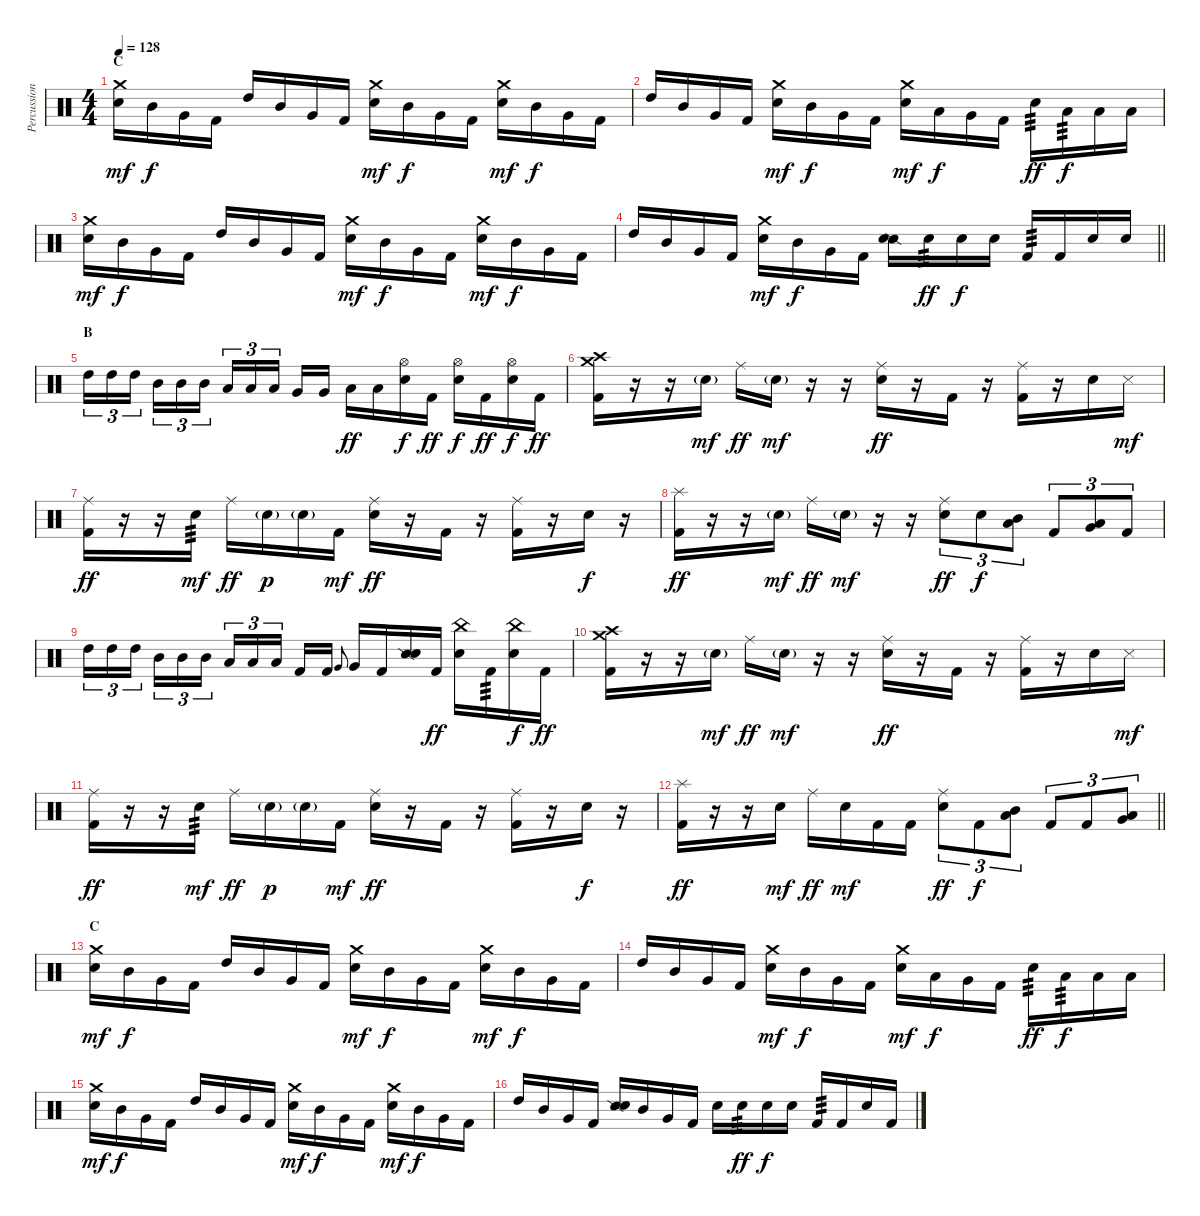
\track ("Percussion" "Percussion") {instrument percussion}
\staff {score}
\articulation defaults
\ts (4 4)
\section ("" "C")
\tempo 128
\clef neutral
\ks c
("Crash medium (hit)" "Snare (hit) 2").16{dy mf} "Mid Tom (hit)".16{dy f} "Very Low Tom (hit)".16 "Kick (hit) 2".16 "High Tom (hit)".16 "Mid Tom (hit)".16 "Very Low Tom (hit)".16 "Kick (hit) 2".16 ("Crash medium (hit)" "Snare (hit) 2").16{dy mf} "Mid Tom (hit)".16{dy f} "Very Low Tom (hit)".16 "Kick (hit) 2".16 ("Crash medium (hit)" "Snare (hit) 2").16{dy mf} "Mid Tom (hit)".16{dy f} "Very Low Tom (hit)".16 "Kick (hit) 2".16 |
"High Tom (hit)".16 "Mid Tom (hit)".16 "Very Low Tom (hit)".16 "Kick (hit) 2".16 ("Crash medium (hit)" "Snare (hit) 2").16{dy mf} "Mid Tom (hit)".16{dy f} "Very Low Tom (hit)".16 "Kick (hit) 2".16 ("Crash medium (hit)" "Snare (hit) 2").16{dy mf} "Low Tom (hit)".16{dy f} "Very Low Tom (hit)".16 "Kick (hit) 2".16 "Snare (hit) 2".16{tp 3 dy ff} "Low Tom (hit)".16{tp 3 dy f} "Low Tom (hit)".16 "Low Tom (hit)".16 |
("Crash medium (hit)" "Snare (hit) 2").16{dy mf} "Mid Tom (hit)".16{dy f} "Very Low Tom (hit)".16 "Kick (hit) 2".16 "High Tom (hit)".16 "Mid Tom (hit)".16 "Very Low Tom (hit)".16 "Kick (hit) 2".16 ("Crash medium (hit)" "Snare (hit) 2").16{dy mf} "Mid Tom (hit)".16{dy f} "Very Low Tom (hit)".16 "Kick (hit) 2".16 ("Crash medium (hit)" "Snare (hit) 2").16{dy mf} "Mid Tom (hit)".16{dy f} "Very Low Tom (hit)".16 "Kick (hit) 2".16 |
\barLineRight lightlight "High Tom (hit)".16 "Mid Tom (hit)".16 "Very Low Tom (hit)".16 "Kick (hit) 2".16
("Crash medium (hit)" "Snare (hit) 2").16{dy mf} "Mid Tom (hit)".16{dy f} "Very Low Tom (hit)".16 "Kick (hit) 2".16 ("Snare (side stick) 2" "Snare (hit) 2").16 "Snare (hit) 2".16{tp 3 dy ff} "Snare (hit) 2".16{dy f} "Snare (hit) 2".16 "Kick (hit) 2".16{tp 3} "Kick (hit) 2".16 "Snare (hit) 2".16 "Snare (hit) 2".16 |
\section ("" "B")
"High Tom (hit)".16{tu (3 2)} "High Tom (hit)".16{tu (3 2)} "High Tom (hit)".16{tu (3 2) beam splitsecondary} "Mid Tom (hit)".16{tu (3 2)} "Mid Tom (hit)".16{tu (3 2)} "Mid Tom (hit)".16{tu (3 2)} "Low Tom (hit)".16{tu (3 2)} "Low Tom (hit)".16{tu (3 2)} "Low Tom (hit)".16{tu (3 2) beam splitsecondary} "Very Low Tom (hit)".16 "Very Low Tom (hit)".16 "Low Floor Tom (hit)".16{dy ff} "Low Floor Tom (hit)".16 ("Hi-Hat (open)" "Snare (hit) 2").16{dy f} "Kick (hit) 2".16{dy ff} ("Hi-Hat (open)" "Snare (hit) 2").16{dy f} "Kick (hit) 2".16{dy ff} ("Hi-Hat (open)" "Snare (hit) 2").16{dy f} "Kick (hit) 2".16{dy ff} |
("Crash high (hit)" "Crash medium (hit)" "Kick (hit) 2").16 r.16 r.16 "Snare (hit) 2"{g}.16{dy mf} "Ride (middle)".16{dy ff} "Snare (hit) 2"{g}.16{dy mf} r.16 r.16 ("Ride (middle)" "Snare (hit) 2").16{dy ff} r.16 "Kick (hit) 2".16 r.16 ("Ride (middle)" "Kick (hit) 2").16 r.16 "Snare (hit) 2".16 "Metronome (hit)".16{dy mf} |
("Ride (middle)" "Kick (hit) 2").16{dy ff} r.16 r.16 "Snare (hit) 2".16{tp 3 dy mf} "Ride (middle)".16{dy ff} "Snare (hit) 2"{g}.16{dy p} "Snare (hit) 2"{g}.16 "Kick (hit) 2".16{dy mf} ("Ride (middle)" "Snare (hit) 2").16{dy ff} r.16 "Kick (hit) 2".16 r.16 ("Ride (middle)" "Kick (hit) 2").16 r.16 "Snare (hit) 2".16{dy f} r.16 |
("Splash (hit)" "Kick (hit) 2").16{dy ff} r.16 r.16 "Snare (hit) 2"{g}.16{dy mf} "Ride (middle)".16{dy ff} "Snare (hit) 2"{g}.16{dy mf} r.16 r.16 ("Ride (middle)" "Snare (hit) 2").8{tu (3 2) dy ff} "Snare (hit) 2".8{tu (3 2) dy f} ("Mid Tom (hit)" "Low Tom (hit)").8{tu (3 2) bu 60} "Kick (hit) 2".8{tu (3 2)} ("Low Tom (hit)" "Very Low Tom (hit)").8{tu (3 2) bu 60} "Kick (hit) 2".8{tu (3 2)} |
"High Tom (hit)".16{tu (3 2)} "High Tom (hit)".16{tu (3 2)} "High Tom (hit)".16{tu (3 2) beam splitsecondary} "Mid Tom (hit)".16{tu (3 2)} "Mid Tom (hit)".16{tu (3 2)} "Mid Tom (hit)".16{tu (3 2)} "Low Tom (hit)".16{tu (3 2)} "Low Tom (hit)".16{tu (3 2)} "Low Tom (hit)".16{tu (3 2) beam splitsecondary} "Kick (hit) 2".16 "Kick (hit) 2".16 "Very Low Tom (hit)".8{gr onbeat} "Very Low Tom (hit)".16 "Kick (hit) 2".16 ("Snare (side stick) 2" "Snare (hit) 2").16 "Kick (hit) 2".16{dy ff} ("China (hit)" "Snare (hit) 2").16 "Kick (hit) 2".16{tp 3} ("China (hit)" "Snare (hit) 2").16{dy f} "Kick (hit) 2".16{dy ff} |
("Crash high (hit)" "Crash medium (hit)" "Kick (hit) 2").16 r.16 r.16 "Snare (hit) 2"{g}.16{dy mf} "Ride (middle)".16{dy ff} "Snare (hit) 2"{g}.16{dy mf} r.16 r.16 ("Ride (middle)" "Snare (hit) 2").16{dy ff} r.16 "Kick (hit) 2".16 r.16 ("Ride (middle)" "Kick (hit) 2").16 r.16 "Snare (hit) 2".16 "Metronome (hit)".16{dy mf} |
("Ride (middle)" "Kick (hit) 2").16{dy ff} r.16 r.16 "Snare (hit) 2".16{tp 3 dy mf} "Ride (middle)".16{dy ff} "Snare (hit) 2"{g}.16{dy p} "Snare (hit) 2"{g}.16 "Kick (hit) 2".16{dy mf} ("Ride (middle)" "Snare (hit) 2").16{dy ff} r.16 "Kick (hit) 2".16 r.16 ("Ride (middle)" "Kick (hit) 2").16 r.16 "Snare (hit) 2".16{dy f} r.16 |
\barLineRight lightlight
("Splash (hit)" "Kick (hit) 2").16{dy ff} r.16 r.16 "Snare (hit) 2".16{dy mf} "Ride (middle)".16{dy ff} "Snare (hit) 2".16{dy mf} "Kick (hit) 2".16 "Kick (hit) 2".16 ("Ride (middle)" "Snare (hit) 2").8{tu (3 2) dy ff} "Kick (hit) 2".8{tu (3 2) dy f} ("Mid Tom (hit)" "Low Tom (hit)").8{tu (3 2) bu 60} "Kick (hit) 2".8{tu (3 2)} "Kick (hit) 2".8{tu (3 2)} ("Low Tom (hit)" "Very Low Tom (hit)").8{tu (3 2) bu 60} |
\section ("" "C")
("Crash medium (hit)" "Snare (hit) 2").16{dy mf} "Mid Tom (hit)".16{dy f} "Very Low Tom (hit)".16 "Kick (hit) 2".16 "High Tom (hit)".16 "Mid Tom (hit)".16 "Very Low Tom (hit)".16 "Kick (hit) 2".16 ("Crash medium (hit)" "Snare (hit) 2").16{dy mf} "Mid Tom (hit)".16{dy f} "Very Low Tom (hit)".16 "Kick (hit) 2".16 ("Crash medium (hit)" "Snare (hit) 2").16{dy mf} "Mid Tom (hit)".16{dy f} "Very Low Tom (hit)".16 "Kick (hit) 2".16 |
"High Tom (hit)".16 "Mid Tom (hit)".16 "Very Low Tom (hit)".16 "Kick (hit) 2".16 ("Crash medium (hit)" "Snare (hit) 2").16{dy mf} "Mid Tom (hit)".16{dy f} "Very Low Tom (hit)".16 "Kick (hit) 2".16 ("Crash medium (hit)" "Snare (hit) 2").16{dy mf} "Low Tom (hit)".16{dy f} "Very Low Tom (hit)".16 "Kick (hit) 2".16 "Snare (hit) 2".16{tp 3 dy ff} "Low Tom (hit)".16{tp 3 dy f} "Low Tom (hit)".16 "Low Tom (hit)".16 |
("Crash medium (hit)" "Snare (hit) 2").16{dy mf} "Mid Tom (hit)".16{dy f} "Very Low Tom (hit)".16 "Kick (hit) 2".16 "High Tom (hit)".16 "Mid Tom (hit)".16 "Very Low Tom (hit)".16 "Kick (hit) 2".16 ("Crash medium (hit)" "Snare (hit) 2").16{dy mf} "Mid Tom (hit)".16{dy f} "Very Low Tom (hit)".16 "Kick (hit) 2".16 ("Crash medium (hit)" "Snare (hit) 2").16{dy mf} "Mid Tom (hit)".16{dy f} "Very Low Tom (hit)".16 "Kick (hit) 2".16 |
"High Tom (hit)".16 "Mid Tom (hit)".16 "Very Low Tom (hit)".16 "Kick (hit) 2".16 ("Snare (side stick) 2" "Snare (hit) 2").16 "Mid Tom (hit)".16 "Very Low Tom (hit)".16 "Kick (hit) 2".16 "Snare (hit) 2".16 "Snare (hit) 2".16{tp 3 dy ff} "Snare (hit) 2".16{dy f} "Snare (hit) 2".16 "Kick (hit) 2".16{tp 3} "Kick (hit) 2".16 "Snare (hit) 2".16 "Kick (hit) 2".16
